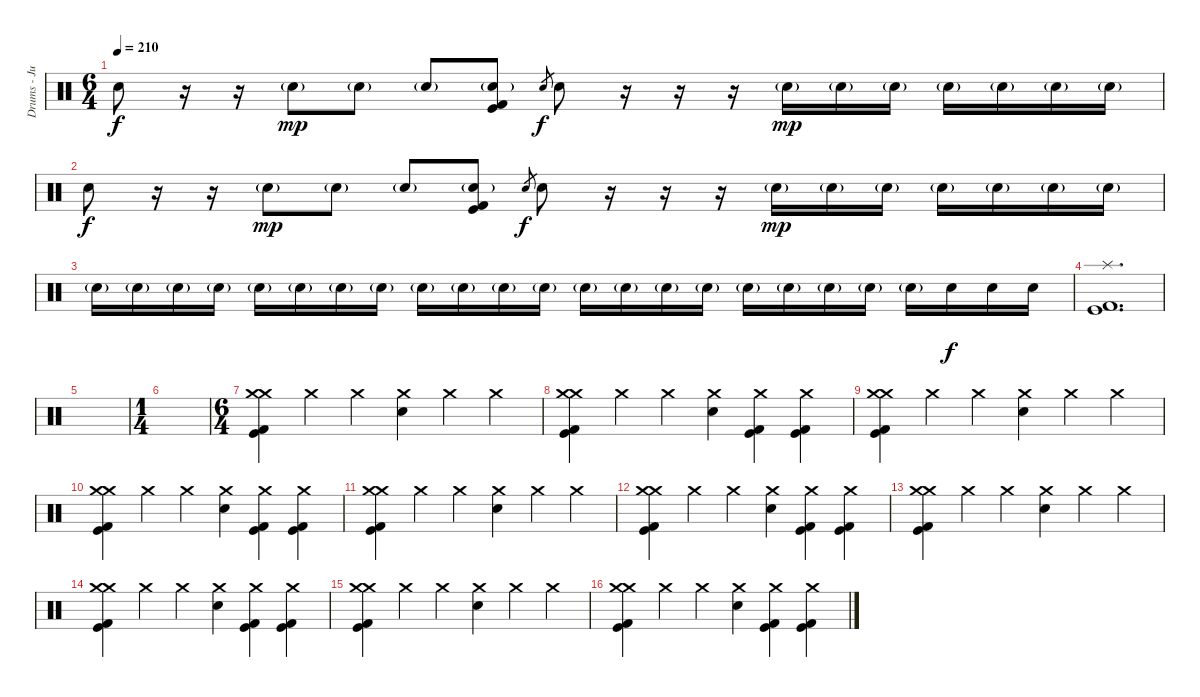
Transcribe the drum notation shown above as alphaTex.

\track ("Drums - Justin Foley" "Drums - Ju") {instrument percussion}
\staff {score}
\articulation defaults
\ts (6 4)
\tempo 210
\clef neutral
\ks c "Snare (hit) 2".8{dy f}
r.16 r.16 "Snare (hit) 2"{g}.8{dy mp} "Snare (hit) 2"{g}.8 "Snare (hit) 2"{g}.8 ("Snare (hit) 2"{g} "Kick (hit) 2" "Kick (hit)").8 "Snare (hit) 2".8{gr dy f} "Snare (hit) 2".8 r.16 r.16 r.16 "Snare (hit) 2"{g}.16{dy mp} "Snare (hit) 2"{g}.16 "Snare (hit) 2"{g}.16 "Snare (hit) 2"{g}.16 "Snare (hit) 2"{g}.16 "Snare (hit) 2"{g}.16 "Snare (hit) 2"{g}.16 |
"Snare (hit) 2".8{dy f} r.16 r.16 "Snare (hit) 2"{g}.8{dy mp} "Snare (hit) 2"{g}.8 "Snare (hit) 2"{g}.8 ("Snare (hit) 2"{g} "Kick (hit) 2" "Kick (hit)").8 "Snare (hit) 2".8{gr dy f} "Snare (hit) 2".8 r.16 r.16 r.16 "Snare (hit) 2"{g}.16{dy mp} "Snare (hit) 2"{g}.16 "Snare (hit) 2"{g}.16 "Snare (hit) 2"{g}.16 "Snare (hit) 2"{g}.16 "Snare (hit) 2"{g}.16 "Snare (hit) 2"{g}.16 |
"Snare (hit) 2"{g}.16 "Snare (hit) 2"{g}.16 "Snare (hit) 2"{g}.16 "Snare (hit) 2"{g}.16 "Snare (hit) 2"{g}.16 "Snare (hit) 2"{g}.16 "Snare (hit) 2"{g}.16 "Snare (hit) 2"{g}.16 "Snare (hit) 2"{g}.16 "Snare (hit) 2"{g}.16 "Snare (hit) 2"{g}.16 "Snare (hit) 2"{g}.16 "Snare (hit) 2"{g}.16 "Snare (hit) 2"{g}.16 "Snare (hit) 2"{g}.16 "Snare (hit) 2"{g}.16 "Snare (hit) 2"{g}.16 "Snare (hit) 2"{g}.16 "Snare (hit) 2"{g}.16 "Snare (hit) 2"{g}.16 "Snare (hit) 2"{g}.16 "Snare (hit) 2".16{dy f} "Snare (hit) 2".16 "Snare (hit) 2".16 |
("Splash (hit)" "Kick (hit) 2" "Kick (hit)").1{d} |
|
\ts (1 4)
|
\ts (6 4)
("Crash medium (hit)" "Kick (hit) 2" "Kick (hit)" "Crash medium (hit)").4 "Crash medium (hit)".4 "Crash medium (hit)".4 ("Crash medium (hit)" "Snare (hit) 2").4 "Crash medium (hit)".4 "Crash medium (hit)".4 |
("Crash medium (hit)" "Kick (hit) 2" "Kick (hit)" "Crash medium (hit)").4 "Crash medium (hit)".4 "Crash medium (hit)".4 ("Crash medium (hit)" "Snare (hit) 2").4 ("Crash medium (hit)" "Kick (hit) 2" "Kick (hit)").4 ("Crash medium (hit)" "Kick (hit) 2" "Kick (hit)").4 |
("Crash medium (hit)" "Kick (hit) 2" "Kick (hit)" "Crash medium (hit)").4 "Crash medium (hit)".4 "Crash medium (hit)".4 ("Crash medium (hit)" "Snare (hit) 2").4 "Crash medium (hit)".4 "Crash medium (hit)".4 |
("Crash medium (hit)" "Kick (hit) 2" "Kick (hit)" "Crash medium (hit)").4 "Crash medium (hit)".4 "Crash medium (hit)".4 ("Crash medium (hit)" "Snare (hit) 2").4 ("Crash medium (hit)" "Kick (hit) 2" "Kick (hit)").4 ("Crash medium (hit)" "Kick (hit) 2" "Kick (hit)").4 |
("Crash medium (hit)" "Kick (hit) 2" "Kick (hit)" "Crash medium (hit)").4 "Crash medium (hit)".4 "Crash medium (hit)".4 ("Crash medium (hit)" "Snare (hit) 2").4 "Crash medium (hit)".4 "Crash medium (hit)".4 |
("Crash medium (hit)" "Kick (hit) 2" "Kick (hit)" "Crash medium (hit)").4 "Crash medium (hit)".4 "Crash medium (hit)".4 ("Crash medium (hit)" "Snare (hit) 2").4 ("Crash medium (hit)" "Kick (hit) 2" "Kick (hit)").4 ("Crash medium (hit)" "Kick (hit) 2" "Kick (hit)").4 |
("Crash medium (hit)" "Kick (hit) 2" "Kick (hit)" "Crash medium (hit)").4 "Crash medium (hit)".4 "Crash medium (hit)".4 ("Crash medium (hit)" "Snare (hit) 2").4 "Crash medium (hit)".4 "Crash medium (hit)".4 |
("Crash medium (hit)" "Kick (hit) 2" "Kick (hit)" "Crash medium (hit)").4 "Crash medium (hit)".4 "Crash medium (hit)".4 ("Crash medium (hit)" "Snare (hit) 2").4 ("Crash medium (hit)" "Kick (hit) 2" "Kick (hit)").4 ("Crash medium (hit)" "Kick (hit) 2" "Kick (hit)").4 |
("Crash medium (hit)" "Kick (hit) 2" "Kick (hit)" "Crash medium (hit)").4 "Crash medium (hit)".4 "Crash medium (hit)".4 ("Crash medium (hit)" "Snare (hit) 2").4 "Crash medium (hit)".4 "Crash medium (hit)".4 |
("Crash medium (hit)" "Kick (hit) 2" "Kick (hit)" "Crash medium (hit)").4 "Crash medium (hit)".4 "Crash medium (hit)".4 ("Crash medium (hit)" "Snare (hit) 2").4 ("Crash medium (hit)" "Kick (hit) 2" "Kick (hit)").4 ("Crash medium (hit)" "Kick (hit) 2" "Kick (hit)").4
